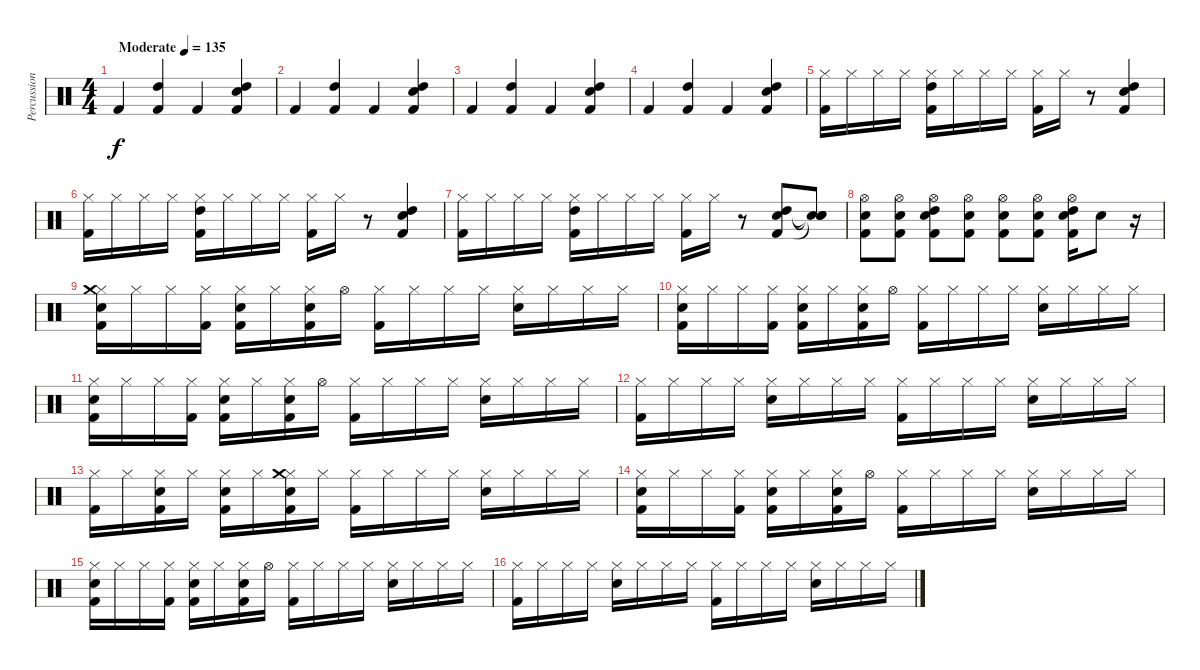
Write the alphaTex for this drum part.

\track ("Percussion" "Percussion") {instrument percussion bank 255}
\staff {score}
\articulation defaults
\ts (4 4)
\tempo (135 "Moderate")
\clef neutral
\ks c "Kick (hit) 2".4{dy f}
("High Tom (hit)" "Kick (hit) 2").4 "Kick (hit) 2".4 ("High Tom (hit)" "Snare (hit) 2" "Kick (hit) 2").4 |
"Kick (hit) 2".4 ("High Tom (hit)" "Kick (hit) 2").4 "Kick (hit) 2".4 ("High Tom (hit)" "Snare (hit) 2" "Kick (hit) 2").4 |
"Kick (hit) 2".4 ("High Tom (hit)" "Kick (hit) 2").4 "Kick (hit) 2".4 ("High Tom (hit)" "Snare (hit) 2" "Kick (hit) 2").4 |
"Kick (hit) 2".4 ("High Tom (hit)" "Kick (hit) 2").4 "Kick (hit) 2".4 ("High Tom (hit)" "Snare (hit) 2" "Kick (hit) 2").4 |
("Hi-Hat (closed)" "Kick (hit) 2").16 "Hi-Hat (closed)".16 "Hi-Hat (closed)".16 "Hi-Hat (closed)".16 ("Hi-Hat (closed)" "High Tom (hit)" "Kick (hit) 2").16 "Hi-Hat (closed)".16 "Hi-Hat (closed)".16 "Hi-Hat (closed)".16 ("Hi-Hat (closed)" "Kick (hit) 2").16 "Hi-Hat (closed)".16 r.8 ("High Tom (hit)" "Snare (hit) 2" "Kick (hit) 2").4 |
("Hi-Hat (closed)" "Kick (hit) 2").16 "Hi-Hat (closed)".16 "Hi-Hat (closed)".16 "Hi-Hat (closed)".16 ("Hi-Hat (closed)" "High Tom (hit)" "Kick (hit) 2").16 "Hi-Hat (closed)".16 "Hi-Hat (closed)".16 "Hi-Hat (closed)".16 ("Hi-Hat (closed)" "Kick (hit) 2").16 "Hi-Hat (closed)".16 r.8 ("High Tom (hit)" "Snare (hit) 2" "Kick (hit) 2").4 |
("Hi-Hat (closed)" "Kick (hit) 2").16 "Hi-Hat (closed)".16 "Hi-Hat (closed)".16 "Hi-Hat (closed)".16 ("Hi-Hat (closed)" "High Tom (hit)" "Kick (hit) 2").16 "Hi-Hat (closed)".16 "Hi-Hat (closed)".16 "Hi-Hat (closed)".16 ("Hi-Hat (closed)" "Kick (hit) 2").16 "Hi-Hat (closed)".16 r.8 ("High Tom (hit)" "Snare (hit) 2" "Kick (hit) 2").8 ("Snare (hit)"{t} "Snare (hit)"{t} "Snare (hit)"{t}).8{volume 6} |
("Hi-Hat (open)" "Snare (hit) 2" "Kick (hit) 2").8{volume 13} ("Hi-Hat (open)" "Snare (hit) 2" "Kick (hit) 2").8 ("Hi-Hat (open)" "High Tom (hit)" "Snare (hit) 2" "Kick (hit) 2").8 ("Hi-Hat (open)" "Snare (hit) 2" "Kick (hit) 2").8 ("Hi-Hat (open)" "Snare (hit) 2" "Kick (hit) 2").8 ("Hi-Hat (open)" "Snare (hit) 2" "Kick (hit) 2").8 ("Hi-Hat (open)" "High Tom (hit)" "Snare (hit) 2" "Kick (hit) 2").16 "Snare (hit) 2".8 r.16 |
("Hi-Hat (closed)" "Crash medium (hit)" "Snare (hit) 2" "Kick (hit) 2").16 "Hi-Hat (closed)".16 "Hi-Hat (closed)".16 ("Hi-Hat (closed)" "Kick (hit) 2").16 ("Hi-Hat (closed)" "Snare (hit) 2" "Kick (hit) 2").16 "Hi-Hat (closed)".16 ("Hi-Hat (closed)" "Snare (hit) 2" "Kick (hit) 2").16 "Hi-Hat (open)".16 ("Hi-Hat (closed)" "Kick (hit) 2").16 "Hi-Hat (closed)".16 "Hi-Hat (closed)".16 "Hi-Hat (closed)".16 ("Hi-Hat (closed)" "Snare (hit) 2").16 "Hi-Hat (closed)".16 "Hi-Hat (closed)".16 "Hi-Hat (closed)".16 |
("Hi-Hat (closed)" "Snare (hit) 2" "Kick (hit) 2").16 "Hi-Hat (closed)".16 "Hi-Hat (closed)".16 ("Hi-Hat (closed)" "Kick (hit) 2").16 ("Hi-Hat (closed)" "Snare (hit) 2" "Kick (hit) 2").16 "Hi-Hat (closed)".16 ("Hi-Hat (closed)" "Snare (hit) 2" "Kick (hit) 2").16 "Hi-Hat (open)".16 ("Hi-Hat (closed)" "Kick (hit) 2").16 "Hi-Hat (closed)".16 "Hi-Hat (closed)".16 "Hi-Hat (closed)".16 ("Hi-Hat (closed)" "Snare (hit) 2").16 "Hi-Hat (closed)".16 "Hi-Hat (closed)".16 "Hi-Hat (closed)".16 |
("Hi-Hat (closed)" "Snare (hit) 2" "Kick (hit) 2").16 "Hi-Hat (closed)".16 "Hi-Hat (closed)".16 ("Hi-Hat (closed)" "Kick (hit) 2").16 ("Hi-Hat (closed)" "Snare (hit) 2" "Kick (hit) 2").16 "Hi-Hat (closed)".16 ("Hi-Hat (closed)" "Snare (hit) 2" "Kick (hit) 2").16 "Hi-Hat (open)".16 ("Hi-Hat (closed)" "Kick (hit) 2").16 "Hi-Hat (closed)".16 "Hi-Hat (closed)".16 "Hi-Hat (closed)".16 ("Hi-Hat (closed)" "Snare (hit) 2").16 "Hi-Hat (closed)".16 "Hi-Hat (closed)".16 "Hi-Hat (closed)".16 |
("Hi-Hat (closed)" "Kick (hit) 2").16 "Hi-Hat (closed)".16 "Hi-Hat (closed)".16 "Hi-Hat (closed)".16 ("Hi-Hat (closed)" "Snare (hit) 2").16 "Hi-Hat (closed)".16 "Hi-Hat (closed)".16 "Hi-Hat (closed)".16 ("Hi-Hat (closed)" "Kick (hit) 2").16 "Hi-Hat (closed)".16 "Hi-Hat (closed)".16 "Hi-Hat (closed)".16 ("Hi-Hat (closed)" "Snare (hit) 2").16 "Hi-Hat (closed)".16 "Hi-Hat (closed)".16 "Hi-Hat (closed)".16 |
("Hi-Hat (closed)" "Kick (hit) 2").16 "Hi-Hat (closed)".16 ("Hi-Hat (closed)" "Snare (hit) 2" "Kick (hit) 2").16 "Hi-Hat (closed)".16 ("Hi-Hat (closed)" "Snare (hit) 2" "Kick (hit) 2").16 "Hi-Hat (closed)".16 ("Hi-Hat (closed)" "Crash medium (hit)" "Snare (hit) 2" "Kick (hit) 2").16 "Hi-Hat (closed)".16 ("Hi-Hat (closed)" "Kick (hit) 2").16 "Hi-Hat (closed)".16 "Hi-Hat (closed)".16 "Hi-Hat (closed)".16 ("Hi-Hat (closed)" "Snare (hit) 2").16 "Hi-Hat (closed)".16 "Hi-Hat (closed)".16 "Hi-Hat (closed)".16 |
("Hi-Hat (closed)" "Snare (hit) 2" "Kick (hit) 2").16 "Hi-Hat (closed)".16 "Hi-Hat (closed)".16 ("Hi-Hat (closed)" "Kick (hit) 2").16 ("Hi-Hat (closed)" "Snare (hit) 2" "Kick (hit) 2").16 "Hi-Hat (closed)".16 ("Hi-Hat (closed)" "Snare (hit) 2" "Kick (hit) 2").16 "Hi-Hat (open)".16 ("Hi-Hat (closed)" "Kick (hit) 2").16 "Hi-Hat (closed)".16 "Hi-Hat (closed)".16 "Hi-Hat (closed)".16 ("Hi-Hat (closed)" "Snare (hit) 2").16 "Hi-Hat (closed)".16 "Hi-Hat (closed)".16 "Hi-Hat (closed)".16 |
("Hi-Hat (closed)" "Snare (hit) 2" "Kick (hit) 2").16 "Hi-Hat (closed)".16 "Hi-Hat (closed)".16 ("Hi-Hat (closed)" "Kick (hit) 2").16 ("Hi-Hat (closed)" "Snare (hit) 2" "Kick (hit) 2").16 "Hi-Hat (closed)".16 ("Hi-Hat (closed)" "Snare (hit) 2" "Kick (hit) 2").16 "Hi-Hat (open)".16 ("Hi-Hat (closed)" "Kick (hit) 2").16 "Hi-Hat (closed)".16 "Hi-Hat (closed)".16 "Hi-Hat (closed)".16 ("Hi-Hat (closed)" "Snare (hit) 2").16 "Hi-Hat (closed)".16 "Hi-Hat (closed)".16 "Hi-Hat (closed)".16 |
("Hi-Hat (closed)" "Kick (hit) 2").16 "Hi-Hat (closed)".16 "Hi-Hat (closed)".16 "Hi-Hat (closed)".16 ("Hi-Hat (closed)" "Snare (hit) 2").16 "Hi-Hat (closed)".16 "Hi-Hat (closed)".16 "Hi-Hat (closed)".16 ("Hi-Hat (closed)" "Kick (hit) 2").16 "Hi-Hat (closed)".16 "Hi-Hat (closed)".16 "Hi-Hat (closed)".16 ("Hi-Hat (closed)" "Snare (hit) 2").16 "Hi-Hat (closed)".16 "Hi-Hat (closed)".16 "Hi-Hat (closed)".16
